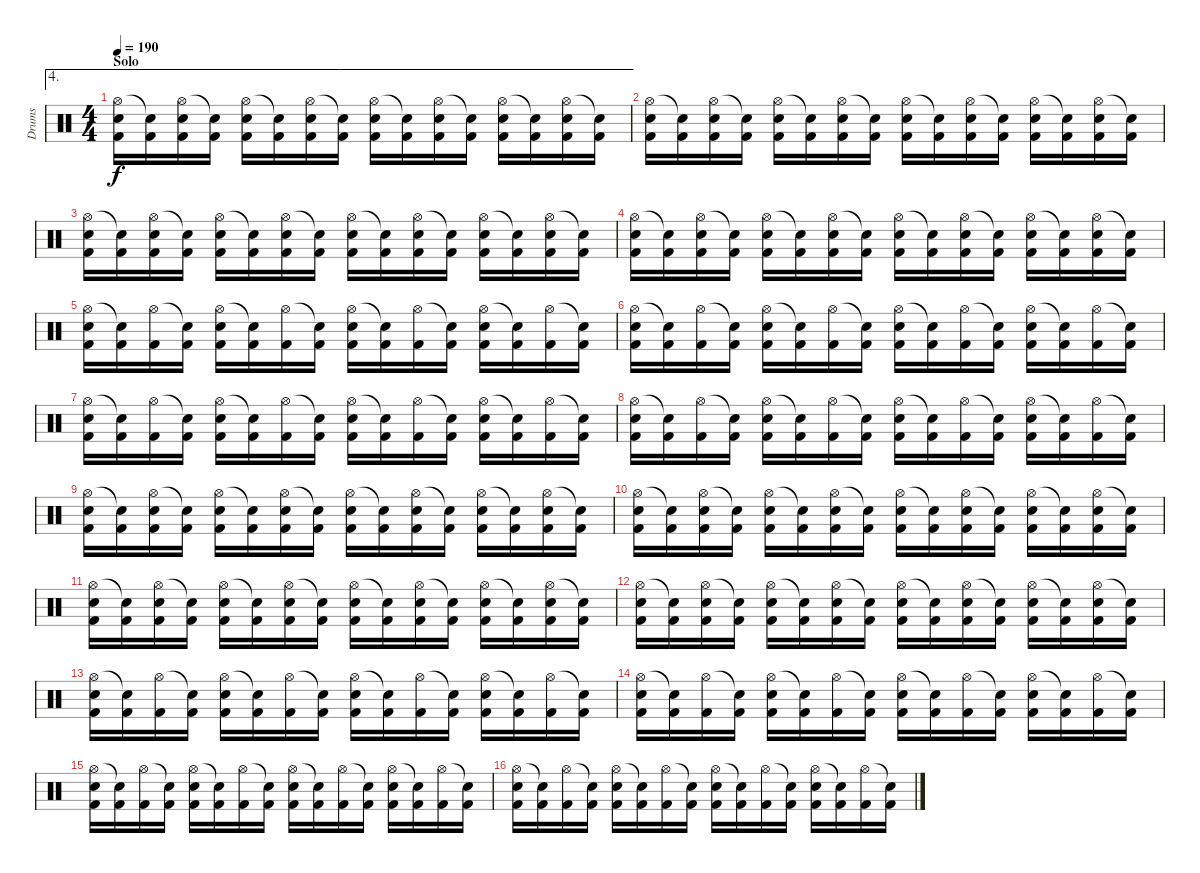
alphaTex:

\track ("Drums" "Drums") {instrument percussion}
\staff {score}
\articulation defaults
\ae 4
\ts (4 4)
\section ("" "Solo")
\tempo 190
\clef neutral
\ks c
("Hi-Hat (open)" "Electric Snare (hit)" "Kick (hit) 2").16{dy f} ("Snare (hit)"{t} "Kick (hit) 2").16 ("Hi-Hat (open)" "Electric Snare (hit)" "Kick (hit) 2").16 ("Snare (hit)"{t} "Kick (hit) 2").16 ("Hi-Hat (open)" "Electric Snare (hit)" "Kick (hit) 2").16 ("Snare (hit)"{t} "Kick (hit) 2").16 ("Hi-Hat (open)" "Electric Snare (hit)" "Kick (hit) 2").16 ("Snare (hit)"{t} "Kick (hit) 2").16 ("Hi-Hat (open)" "Electric Snare (hit)" "Kick (hit) 2").16 ("Snare (hit)"{t} "Kick (hit) 2").16 ("Hi-Hat (open)" "Electric Snare (hit)" "Kick (hit) 2").16 ("Snare (hit)"{t} "Kick (hit) 2").16 ("Hi-Hat (open)" "Electric Snare (hit)" "Kick (hit) 2").16 ("Snare (hit)"{t} "Kick (hit) 2").16 ("Hi-Hat (open)" "Electric Snare (hit)" "Kick (hit) 2").16 ("Snare (hit)"{t} "Kick (hit) 2").16 |
("Hi-Hat (open)" "Electric Snare (hit)" "Kick (hit) 2").16 ("Snare (hit)"{t} "Kick (hit) 2").16 ("Hi-Hat (open)" "Electric Snare (hit)" "Kick (hit) 2").16 ("Snare (hit)"{t} "Kick (hit) 2").16 ("Hi-Hat (open)" "Electric Snare (hit)" "Kick (hit) 2").16 ("Snare (hit)"{t} "Kick (hit) 2").16 ("Hi-Hat (open)" "Electric Snare (hit)" "Kick (hit) 2").16 ("Snare (hit)"{t} "Kick (hit) 2").16 ("Hi-Hat (open)" "Electric Snare (hit)" "Kick (hit) 2").16 ("Snare (hit)"{t} "Kick (hit) 2").16 ("Hi-Hat (open)" "Electric Snare (hit)" "Kick (hit) 2").16 ("Snare (hit)"{t} "Kick (hit) 2").16 ("Hi-Hat (open)" "Electric Snare (hit)" "Kick (hit) 2").16 ("Snare (hit)"{t} "Kick (hit) 2").16 ("Hi-Hat (open)" "Electric Snare (hit)" "Kick (hit) 2").16 ("Snare (hit)"{t} "Kick (hit) 2").16 |
("Hi-Hat (open)" "Electric Snare (hit)" "Kick (hit) 2").16 ("Snare (hit)"{t} "Kick (hit) 2").16 ("Hi-Hat (open)" "Electric Snare (hit)" "Kick (hit) 2").16 ("Snare (hit)"{t} "Kick (hit) 2").16 ("Hi-Hat (open)" "Electric Snare (hit)" "Kick (hit) 2").16 ("Snare (hit)"{t} "Kick (hit) 2").16 ("Hi-Hat (open)" "Electric Snare (hit)" "Kick (hit) 2").16 ("Snare (hit)"{t} "Kick (hit) 2").16 ("Hi-Hat (open)" "Electric Snare (hit)" "Kick (hit) 2").16 ("Snare (hit)"{t} "Kick (hit) 2").16 ("Hi-Hat (open)" "Electric Snare (hit)" "Kick (hit) 2").16 ("Snare (hit)"{t} "Kick (hit) 2").16 ("Hi-Hat (open)" "Electric Snare (hit)" "Kick (hit) 2").16 ("Snare (hit)"{t} "Kick (hit) 2").16 ("Hi-Hat (open)" "Electric Snare (hit)" "Kick (hit) 2").16 ("Snare (hit)"{t} "Kick (hit) 2").16 |
("Hi-Hat (open)" "Electric Snare (hit)" "Kick (hit) 2").16 ("Snare (hit)"{t} "Kick (hit) 2").16 ("Hi-Hat (open)" "Electric Snare (hit)" "Kick (hit) 2").16 ("Snare (hit)"{t} "Kick (hit) 2").16 ("Hi-Hat (open)" "Electric Snare (hit)" "Kick (hit) 2").16 ("Snare (hit)"{t} "Kick (hit) 2").16 ("Hi-Hat (open)" "Electric Snare (hit)" "Kick (hit) 2").16 ("Snare (hit)"{t} "Kick (hit) 2").16 ("Hi-Hat (open)" "Electric Snare (hit)" "Kick (hit) 2").16 ("Snare (hit)"{t} "Kick (hit) 2").16 ("Hi-Hat (open)" "Electric Snare (hit)" "Kick (hit) 2").16 ("Snare (hit)"{t} "Kick (hit) 2").16 ("Hi-Hat (open)" "Electric Snare (hit)" "Kick (hit) 2").16 ("Snare (hit)"{t} "Kick (hit) 2").16 ("Hi-Hat (open)" "Electric Snare (hit)" "Kick (hit) 2").16 ("Snare (hit)"{t} "Kick (hit) 2").16 |
("Hi-Hat (open)" "Electric Snare (hit)" "Kick (hit) 2").16 ("Snare (hit)"{t} "Kick (hit) 2").16 ("Hi-Hat (open)" "Kick (hit) 2").16 ("Snare (hit)"{t} "Kick (hit) 2").16 ("Hi-Hat (open)" "Electric Snare (hit)" "Kick (hit) 2").16 ("Snare (hit)"{t} "Kick (hit) 2").16 ("Hi-Hat (open)" "Kick (hit) 2").16 ("Snare (hit)"{t} "Kick (hit) 2").16 ("Hi-Hat (open)" "Electric Snare (hit)" "Kick (hit) 2").16 ("Snare (hit)"{t} "Kick (hit) 2").16 ("Hi-Hat (open)" "Kick (hit) 2").16 ("Snare (hit)"{t} "Kick (hit) 2").16 ("Hi-Hat (open)" "Electric Snare (hit)" "Kick (hit) 2").16 ("Snare (hit)"{t} "Kick (hit) 2").16 ("Hi-Hat (open)" "Kick (hit) 2").16 ("Snare (hit)"{t} "Kick (hit) 2").16 |
("Hi-Hat (open)" "Electric Snare (hit)" "Kick (hit) 2").16 ("Snare (hit)"{t} "Kick (hit) 2").16 ("Hi-Hat (open)" "Kick (hit) 2").16 ("Snare (hit)"{t} "Kick (hit) 2").16 ("Hi-Hat (open)" "Electric Snare (hit)" "Kick (hit) 2").16 ("Snare (hit)"{t} "Kick (hit) 2").16 ("Hi-Hat (open)" "Kick (hit) 2").16 ("Snare (hit)"{t} "Kick (hit) 2").16 ("Hi-Hat (open)" "Electric Snare (hit)" "Kick (hit) 2").16 ("Snare (hit)"{t} "Kick (hit) 2").16 ("Hi-Hat (open)" "Kick (hit) 2").16 ("Snare (hit)"{t} "Kick (hit) 2").16 ("Hi-Hat (open)" "Electric Snare (hit)" "Kick (hit) 2").16 ("Snare (hit)"{t} "Kick (hit) 2").16 ("Hi-Hat (open)" "Kick (hit) 2").16 ("Snare (hit)"{t} "Kick (hit) 2").16 |
("Hi-Hat (open)" "Electric Snare (hit)" "Kick (hit) 2").16 ("Snare (hit)"{t} "Kick (hit) 2").16 ("Hi-Hat (open)" "Kick (hit) 2").16 ("Snare (hit)"{t} "Kick (hit) 2").16 ("Hi-Hat (open)" "Electric Snare (hit)" "Kick (hit) 2").16 ("Snare (hit)"{t} "Kick (hit) 2").16 ("Hi-Hat (open)" "Kick (hit) 2").16 ("Snare (hit)"{t} "Kick (hit) 2").16 ("Hi-Hat (open)" "Electric Snare (hit)" "Kick (hit) 2").16 ("Snare (hit)"{t} "Kick (hit) 2").16 ("Hi-Hat (open)" "Kick (hit) 2").16 ("Snare (hit)"{t} "Kick (hit) 2").16 ("Hi-Hat (open)" "Electric Snare (hit)" "Kick (hit) 2").16 ("Snare (hit)"{t} "Kick (hit) 2").16 ("Hi-Hat (open)" "Kick (hit) 2").16 ("Snare (hit)"{t} "Kick (hit) 2").16 |
("Hi-Hat (open)" "Electric Snare (hit)" "Kick (hit) 2").16 ("Snare (hit)"{t} "Kick (hit) 2").16 ("Hi-Hat (open)" "Kick (hit) 2").16 ("Snare (hit)"{t} "Kick (hit) 2").16 ("Hi-Hat (open)" "Electric Snare (hit)" "Kick (hit) 2").16 ("Snare (hit)"{t} "Kick (hit) 2").16 ("Hi-Hat (open)" "Kick (hit) 2").16 ("Snare (hit)"{t} "Kick (hit) 2").16 ("Hi-Hat (open)" "Electric Snare (hit)" "Kick (hit) 2").16 ("Snare (hit)"{t} "Kick (hit) 2").16 ("Hi-Hat (open)" "Kick (hit) 2").16 ("Snare (hit)"{t} "Kick (hit) 2").16 ("Hi-Hat (open)" "Electric Snare (hit)" "Kick (hit) 2").16 ("Snare (hit)"{t} "Kick (hit) 2").16 ("Hi-Hat (open)" "Kick (hit) 2").16 ("Snare (hit)"{t} "Kick (hit) 2").16 |
("Hi-Hat (open)" "Electric Snare (hit)" "Kick (hit) 2").16 ("Snare (hit)"{t} "Kick (hit) 2").16 ("Hi-Hat (open)" "Electric Snare (hit)" "Kick (hit) 2").16 ("Snare (hit)"{t} "Kick (hit) 2").16 ("Hi-Hat (open)" "Electric Snare (hit)" "Kick (hit) 2").16 ("Snare (hit)"{t} "Kick (hit) 2").16 ("Hi-Hat (open)" "Electric Snare (hit)" "Kick (hit) 2").16 ("Snare (hit)"{t} "Kick (hit) 2").16 ("Hi-Hat (open)" "Electric Snare (hit)" "Kick (hit) 2").16 ("Snare (hit)"{t} "Kick (hit) 2").16 ("Hi-Hat (open)" "Electric Snare (hit)" "Kick (hit) 2").16 ("Snare (hit)"{t} "Kick (hit) 2").16 ("Hi-Hat (open)" "Electric Snare (hit)" "Kick (hit) 2").16 ("Snare (hit)"{t} "Kick (hit) 2").16 ("Hi-Hat (open)" "Electric Snare (hit)" "Kick (hit) 2").16 ("Snare (hit)"{t} "Kick (hit) 2").16 |
("Hi-Hat (open)" "Electric Snare (hit)" "Kick (hit) 2").16 ("Snare (hit)"{t} "Kick (hit) 2").16 ("Hi-Hat (open)" "Electric Snare (hit)" "Kick (hit) 2").16 ("Snare (hit)"{t} "Kick (hit) 2").16 ("Hi-Hat (open)" "Electric Snare (hit)" "Kick (hit) 2").16 ("Snare (hit)"{t} "Kick (hit) 2").16 ("Hi-Hat (open)" "Electric Snare (hit)" "Kick (hit) 2").16 ("Snare (hit)"{t} "Kick (hit) 2").16 ("Hi-Hat (open)" "Electric Snare (hit)" "Kick (hit) 2").16 ("Snare (hit)"{t} "Kick (hit) 2").16 ("Hi-Hat (open)" "Electric Snare (hit)" "Kick (hit) 2").16 ("Snare (hit)"{t} "Kick (hit) 2").16 ("Hi-Hat (open)" "Electric Snare (hit)" "Kick (hit) 2").16 ("Snare (hit)"{t} "Kick (hit) 2").16 ("Hi-Hat (open)" "Electric Snare (hit)" "Kick (hit) 2").16 ("Snare (hit)"{t} "Kick (hit) 2").16 |
("Hi-Hat (open)" "Electric Snare (hit)" "Kick (hit) 2").16 ("Snare (hit)"{t} "Kick (hit) 2").16 ("Hi-Hat (open)" "Electric Snare (hit)" "Kick (hit) 2").16 ("Snare (hit)"{t} "Kick (hit) 2").16 ("Hi-Hat (open)" "Electric Snare (hit)" "Kick (hit) 2").16 ("Snare (hit)"{t} "Kick (hit) 2").16 ("Hi-Hat (open)" "Electric Snare (hit)" "Kick (hit) 2").16 ("Snare (hit)"{t} "Kick (hit) 2").16 ("Hi-Hat (open)" "Electric Snare (hit)" "Kick (hit) 2").16 ("Snare (hit)"{t} "Kick (hit) 2").16 ("Hi-Hat (open)" "Electric Snare (hit)" "Kick (hit) 2").16 ("Snare (hit)"{t} "Kick (hit) 2").16 ("Hi-Hat (open)" "Electric Snare (hit)" "Kick (hit) 2").16 ("Snare (hit)"{t} "Kick (hit) 2").16 ("Hi-Hat (open)" "Electric Snare (hit)" "Kick (hit) 2").16 ("Snare (hit)"{t} "Kick (hit) 2").16 |
("Hi-Hat (open)" "Electric Snare (hit)" "Kick (hit) 2").16 ("Snare (hit)"{t} "Kick (hit) 2").16 ("Hi-Hat (open)" "Electric Snare (hit)" "Kick (hit) 2").16 ("Snare (hit)"{t} "Kick (hit) 2").16 ("Hi-Hat (open)" "Electric Snare (hit)" "Kick (hit) 2").16 ("Snare (hit)"{t} "Kick (hit) 2").16 ("Hi-Hat (open)" "Electric Snare (hit)" "Kick (hit) 2").16 ("Snare (hit)"{t} "Kick (hit) 2").16 ("Hi-Hat (open)" "Electric Snare (hit)" "Kick (hit) 2").16 ("Snare (hit)"{t} "Kick (hit) 2").16 ("Hi-Hat (open)" "Electric Snare (hit)" "Kick (hit) 2").16 ("Snare (hit)"{t} "Kick (hit) 2").16 ("Hi-Hat (open)" "Electric Snare (hit)" "Kick (hit) 2").16 ("Snare (hit)"{t} "Kick (hit) 2").16 ("Hi-Hat (open)" "Electric Snare (hit)" "Kick (hit) 2").16 ("Snare (hit)"{t} "Kick (hit) 2").16 |
("Hi-Hat (open)" "Electric Snare (hit)" "Kick (hit) 2").16 ("Snare (hit)"{t} "Kick (hit) 2").16 ("Hi-Hat (open)" "Kick (hit) 2").16 ("Snare (hit)"{t} "Kick (hit) 2").16 ("Hi-Hat (open)" "Electric Snare (hit)" "Kick (hit) 2").16 ("Snare (hit)"{t} "Kick (hit) 2").16 ("Hi-Hat (open)" "Kick (hit) 2").16 ("Snare (hit)"{t} "Kick (hit) 2").16 ("Hi-Hat (open)" "Electric Snare (hit)" "Kick (hit) 2").16 ("Snare (hit)"{t} "Kick (hit) 2").16 ("Hi-Hat (open)" "Kick (hit) 2").16 ("Snare (hit)"{t} "Kick (hit) 2").16 ("Hi-Hat (open)" "Electric Snare (hit)" "Kick (hit) 2").16 ("Snare (hit)"{t} "Kick (hit) 2").16 ("Hi-Hat (open)" "Kick (hit) 2").16 ("Snare (hit)"{t} "Kick (hit) 2").16 |
("Hi-Hat (open)" "Electric Snare (hit)" "Kick (hit) 2").16 ("Snare (hit)"{t} "Kick (hit) 2").16 ("Hi-Hat (open)" "Kick (hit) 2").16 ("Snare (hit)"{t} "Kick (hit) 2").16 ("Hi-Hat (open)" "Electric Snare (hit)" "Kick (hit) 2").16 ("Snare (hit)"{t} "Kick (hit) 2").16 ("Hi-Hat (open)" "Kick (hit) 2").16 ("Snare (hit)"{t} "Kick (hit) 2").16 ("Hi-Hat (open)" "Electric Snare (hit)" "Kick (hit) 2").16 ("Snare (hit)"{t} "Kick (hit) 2").16 ("Hi-Hat (open)" "Kick (hit) 2").16 ("Snare (hit)"{t} "Kick (hit) 2").16 ("Hi-Hat (open)" "Electric Snare (hit)" "Kick (hit) 2").16 ("Snare (hit)"{t} "Kick (hit) 2").16 ("Hi-Hat (open)" "Kick (hit) 2").16 ("Snare (hit)"{t} "Kick (hit) 2").16 |
("Hi-Hat (open)" "Electric Snare (hit)" "Kick (hit) 2").16 ("Snare (hit)"{t} "Kick (hit) 2").16 ("Hi-Hat (open)" "Kick (hit) 2").16 ("Snare (hit)"{t} "Kick (hit) 2").16 ("Hi-Hat (open)" "Electric Snare (hit)" "Kick (hit) 2").16 ("Snare (hit)"{t} "Kick (hit) 2").16 ("Hi-Hat (open)" "Kick (hit) 2").16 ("Snare (hit)"{t} "Kick (hit) 2").16 ("Hi-Hat (open)" "Electric Snare (hit)" "Kick (hit) 2").16 ("Snare (hit)"{t} "Kick (hit) 2").16 ("Hi-Hat (open)" "Kick (hit) 2").16 ("Snare (hit)"{t} "Kick (hit) 2").16 ("Hi-Hat (open)" "Electric Snare (hit)" "Kick (hit) 2").16 ("Snare (hit)"{t} "Kick (hit) 2").16 ("Hi-Hat (open)" "Kick (hit) 2").16 ("Snare (hit)"{t} "Kick (hit) 2").16 |
("Hi-Hat (open)" "Electric Snare (hit)" "Kick (hit) 2").16 ("Snare (hit)"{t} "Kick (hit) 2").16 ("Hi-Hat (open)" "Kick (hit) 2").16 ("Snare (hit)"{t} "Kick (hit) 2").16 ("Hi-Hat (open)" "Electric Snare (hit)" "Kick (hit) 2").16 ("Snare (hit)"{t} "Kick (hit) 2").16 ("Hi-Hat (open)" "Kick (hit) 2").16 ("Snare (hit)"{t} "Kick (hit) 2").16 ("Hi-Hat (open)" "Electric Snare (hit)" "Kick (hit) 2").16 ("Snare (hit)"{t} "Kick (hit) 2").16 ("Hi-Hat (open)" "Kick (hit) 2").16 ("Snare (hit)"{t} "Kick (hit) 2").16 ("Hi-Hat (open)" "Electric Snare (hit)" "Kick (hit) 2").16 ("Snare (hit)"{t} "Kick (hit) 2").16 ("Hi-Hat (open)" "Kick (hit) 2").16 ("Snare (hit)"{t} "Kick (hit) 2").16
